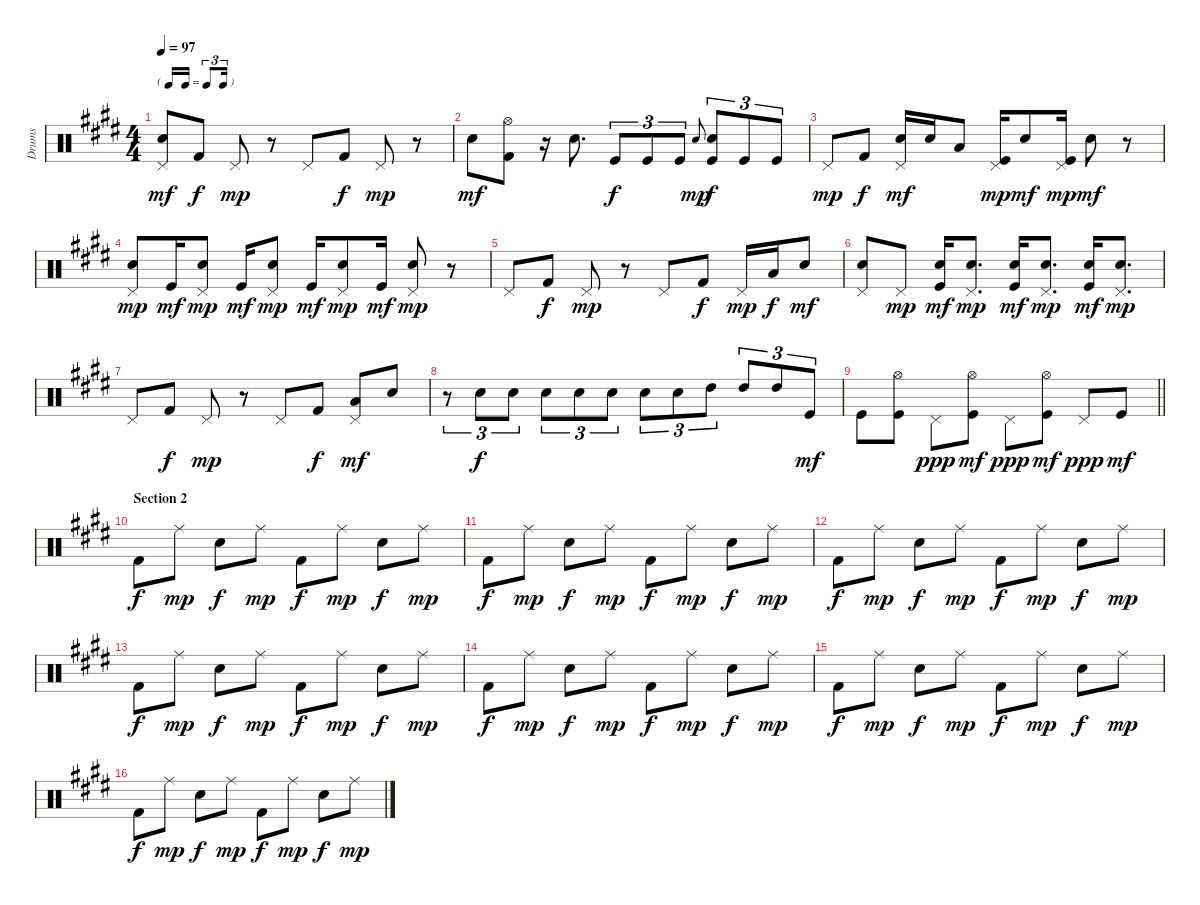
\track ("Drums" "Drums") {instrument percussion}
\staff {score}
\articulation defaults
\ts (4 4)
\tf triplet16th
\tempo 97
\clef neutral
\ks e
("Pedal Hi-Hat (hit)" "Snare (hit) 2").8{dy mf} "Kick (hit) 2".8{dy f} "Pedal Hi-Hat (hit)".8{dy mp} r.8 "Pedal Hi-Hat (hit)".8 "Kick (hit) 2".8{dy f} "Pedal Hi-Hat (hit)".8{dy mp} r.8 |
\ks c#minor "Snare (hit) 2".8{dy mf}
("Hi-Hat (open)" "Kick (hit) 2").8 r.16 "Snare (hit) 2".8{d} "Kick (hit)".8{tu (3 2) dy f} "Kick (hit)".8{tu (3 2)} "Kick (hit)".8{tu (3 2)} "Snare (hit) 2".8{gr onbeat dy mp} ("Snare (hit) 2" "Kick (hit)").8{tu (3 2) dy f} "Kick (hit)".8{tu (3 2)} "Kick (hit)".8{tu (3 2)} |
\ks e "Pedal Hi-Hat (hit)".8{dy mp} "Kick (hit) 2".8{dy f}
("Pedal Hi-Hat (hit)" "Electric Snare (hit)").16{dy mf} "Electric Snare (hit)".16 "Low Tom (hit)".8 ("Pedal Hi-Hat (hit)" "Kick (hit)").16{dy mp} "Snare (hit) 2".8{dy mf} ("Pedal Hi-Hat (hit)" "Kick (hit)").16{dy mp} "Snare (hit) 2".8{dy mf} r.8 |
\ks c#minor
("Pedal Hi-Hat (hit)" "Snare (hit) 2").8{dy mp} "Kick (hit)".16{dy mf} ("Pedal Hi-Hat (hit)" "Snare (hit) 2").8{dy mp} "Kick (hit)".16{dy mf} ("Pedal Hi-Hat (hit)" "Snare (hit) 2").8{dy mp} "Kick (hit)".16{dy mf} ("Pedal Hi-Hat (hit)" "Snare (hit) 2").8{dy mp} "Kick (hit)".16{dy mf} ("Pedal Hi-Hat (hit)" "Snare (hit) 2").8{dy mp} r.8 |
\ks e "Pedal Hi-Hat (hit)".8 "Kick (hit) 2".8{dy f} "Pedal Hi-Hat (hit)".8{dy mp}
r.8 "Pedal Hi-Hat (hit)".8 "Kick (hit) 2".8{dy f} "Pedal Hi-Hat (hit)".16{dy mp} "Low Tom (hit)".16{dy f} "Electric Snare (hit)".8{dy mf} |
\ks c#minor
("Pedal Hi-Hat (hit)" "Snare (hit) 2").8 "Pedal Hi-Hat (hit)".8{dy mp} ("Snare (hit) 2" "Kick (hit)").16{dy mf} ("Pedal Hi-Hat (hit)" "Snare (hit) 2").8{d dy mp} ("Snare (hit) 2" "Kick (hit)").16{dy mf} ("Pedal Hi-Hat (hit)" "Snare (hit) 2").8{d dy mp} ("Snare (hit) 2" "Kick (hit)").16{dy mf} ("Pedal Hi-Hat (hit)" "Snare (hit) 2").8{d dy mp} |
"Pedal Hi-Hat (hit)".8 "Kick (hit) 2".8{dy f} "Pedal Hi-Hat (hit)".8{dy mp} r.8 "Pedal Hi-Hat (hit)".8 "Kick (hit) 2".8{dy f} ("Pedal Hi-Hat (hit)" "Low Tom (hit)").8{dy mf} "Electric Snare (hit)".8 |
\ks e
r.8{tu (3 2)} "Snare (hit) 2".8{tu (3 2) dy f} "Snare (hit) 2".8{tu (3 2)} "Snare (hit) 2".8{tu (3 2)} "Snare (hit) 2".8{tu (3 2)} "Snare (hit) 2".8{tu (3 2)} "Snare (hit) 2".8{tu (3 2)} "Snare (hit) 2".8{tu (3 2)} "High Tom (hit)".8{tu (3 2)} "High Tom (hit)".8{tu (3 2)} "High Tom (hit)".8{tu (3 2)} "Kick (hit)".8{tu (3 2) dy mf} |
\barLineRight lightlight "Kick (hit)".8
("Hi-Hat (open)" "Kick (hit)").8 "Pedal Hi-Hat (hit)".8{dy ppp} ("Hi-Hat (open)" "Kick (hit)").8{dy mf} "Pedal Hi-Hat (hit)".8{dy ppp} ("Hi-Hat (open)" "Kick (hit)").8{dy mf} "Pedal Hi-Hat (hit)".8{dy ppp} "Kick (hit)".8{dy mf} |
\section ("" "Section 2")
\ks c#minor "Kick (hit) 2".8{dy f} "Ride (middle)".8{dy mp} "Snare (hit) 2".8{dy f} "Ride (middle)".8{dy mp} "Kick (hit) 2".8{dy f} "Ride (middle)".8{dy mp} "Snare (hit) 2".8{dy f} "Ride (middle)".8{dy mp}
|
\ks e "Kick (hit) 2".8{dy f} "Ride (middle)".8{dy mp} "Snare (hit) 2".8{dy f} "Ride (middle)".8{dy mp} "Kick (hit) 2".8{dy f} "Ride (middle)".8{dy mp} "Snare (hit) 2".8{dy f} "Ride (middle)".8{dy mp}
|
\ks c#minor "Kick (hit) 2".8{dy f} "Ride (middle)".8{dy mp} "Snare (hit) 2".8{dy f} "Ride (middle)".8{dy mp} "Kick (hit) 2".8{dy f} "Ride (middle)".8{dy mp} "Snare (hit) 2".8{dy f} "Ride (middle)".8{dy mp}
|
\ks e "Kick (hit) 2".8{dy f} "Ride (middle)".8{dy mp} "Snare (hit) 2".8{dy f} "Ride (middle)".8{dy mp} "Kick (hit) 2".8{dy f} "Ride (middle)".8{dy mp} "Snare (hit) 2".8{dy f} "Ride (middle)".8{dy mp}
|
\ks c#minor "Kick (hit) 2".8{dy f} "Ride (middle)".8{dy mp} "Snare (hit) 2".8{dy f} "Ride (middle)".8{dy mp} "Kick (hit) 2".8{dy f} "Ride (middle)".8{dy mp} "Snare (hit) 2".8{dy f} "Ride (middle)".8{dy mp}
|
\ks e "Kick (hit) 2".8{dy f} "Ride (middle)".8{dy mp} "Snare (hit) 2".8{dy f} "Ride (middle)".8{dy mp} "Kick (hit) 2".8{dy f} "Ride (middle)".8{dy mp} "Snare (hit) 2".8{dy f} "Ride (middle)".8{dy mp}
|
\ks c#minor "Kick (hit) 2".8{dy f} "Ride (middle)".8{dy mp} "Snare (hit) 2".8{dy f} "Ride (middle)".8{dy mp} "Kick (hit) 2".8{dy f} "Ride (middle)".8{dy mp} "Snare (hit) 2".8{dy f} "Ride (middle)".8{dy mp}
